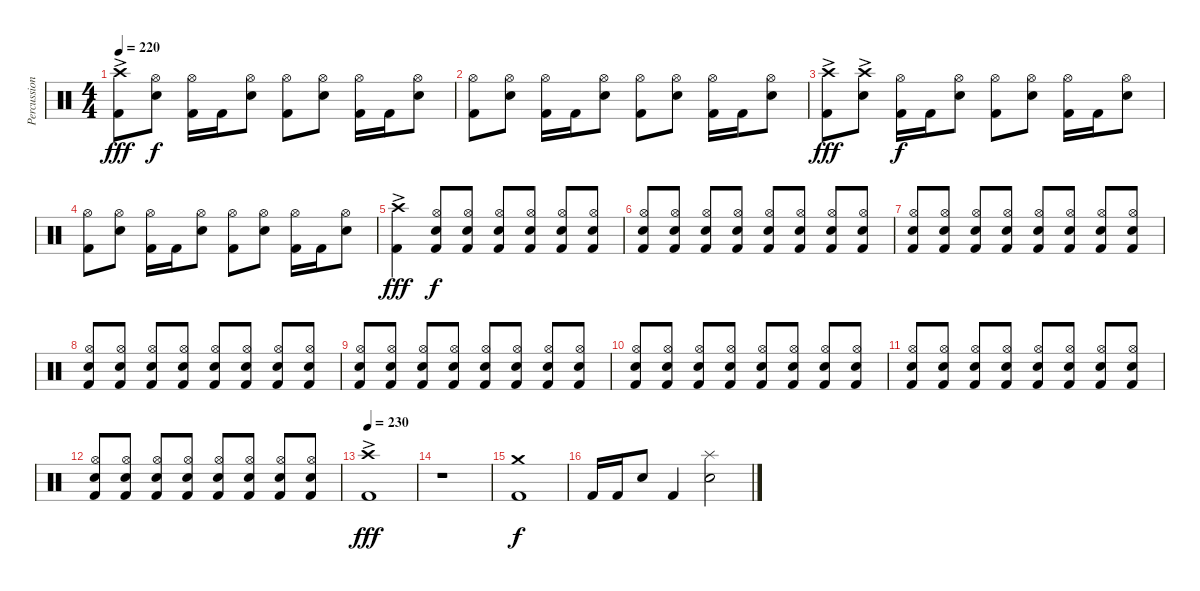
\track ("Percussion" "Percussion") {instrument percussion}
\staff {score}
\articulation defaults
\ts (4 4)
\tempo 220
\clef neutral
\ks c
("Crash high (hit)"{ac} "Kick (hit) 2").8{dy fff} ("Hi-Hat (open)" "Electric Snare (hit)").8{dy f} ("Hi-Hat (open)" "Kick (hit) 2").16 "Kick (hit) 2".16 ("Hi-Hat (open)" "Electric Snare (hit)").8 ("Hi-Hat (open)" "Kick (hit) 2").8 ("Hi-Hat (open)" "Electric Snare (hit)").8 ("Hi-Hat (open)" "Kick (hit) 2").16 "Kick (hit) 2".16 ("Hi-Hat (open)" "Electric Snare (hit)").8 |
("Hi-Hat (open)" "Kick (hit) 2").8 ("Hi-Hat (open)" "Electric Snare (hit)").8 ("Hi-Hat (open)" "Kick (hit) 2").16 "Kick (hit) 2".16 ("Hi-Hat (open)" "Electric Snare (hit)").8 ("Hi-Hat (open)" "Kick (hit) 2").8 ("Hi-Hat (open)" "Electric Snare (hit)").8 ("Hi-Hat (open)" "Kick (hit) 2").16 "Kick (hit) 2".16 ("Hi-Hat (open)" "Electric Snare (hit)").8 |
("Crash high (hit)"{ac} "Kick (hit) 2").8{dy fff} ("Crash high (hit)"{ac} "Electric Snare (hit)").8 ("Hi-Hat (open)" "Kick (hit) 2").16{dy f} "Kick (hit) 2".16 ("Hi-Hat (open)" "Electric Snare (hit)").8 ("Hi-Hat (open)" "Kick (hit) 2").8 ("Hi-Hat (open)" "Electric Snare (hit)").8 ("Hi-Hat (open)" "Kick (hit) 2").16 "Kick (hit) 2".16 ("Hi-Hat (open)" "Electric Snare (hit)").8 |
("Hi-Hat (open)" "Kick (hit) 2").8 ("Hi-Hat (open)" "Electric Snare (hit)").8 ("Hi-Hat (open)" "Kick (hit) 2").16 "Kick (hit) 2".16 ("Hi-Hat (open)" "Electric Snare (hit)").8 ("Hi-Hat (open)" "Kick (hit) 2").8 ("Hi-Hat (open)" "Electric Snare (hit)").8 ("Hi-Hat (open)" "Kick (hit) 2").16 "Kick (hit) 2".16 ("Hi-Hat (open)" "Electric Snare (hit)").8 |
("Crash high (hit)"{ac} "Kick (hit) 2").4{dy fff} ("Hi-Hat (open)" "Electric Snare (hit)" "Kick (hit) 2").8{dy f} ("Hi-Hat (open)" "Electric Snare (hit)" "Kick (hit) 2").8 ("Hi-Hat (open)" "Electric Snare (hit)" "Kick (hit) 2").8 ("Hi-Hat (open)" "Electric Snare (hit)" "Kick (hit) 2").8 ("Hi-Hat (open)" "Electric Snare (hit)" "Kick (hit) 2").8 ("Hi-Hat (open)" "Electric Snare (hit)" "Kick (hit) 2").8 |
("Hi-Hat (open)" "Electric Snare (hit)" "Kick (hit) 2").8 ("Hi-Hat (open)" "Electric Snare (hit)" "Kick (hit) 2").8 ("Hi-Hat (open)" "Electric Snare (hit)" "Kick (hit) 2").8 ("Hi-Hat (open)" "Electric Snare (hit)" "Kick (hit) 2").8 ("Hi-Hat (open)" "Electric Snare (hit)" "Kick (hit) 2").8 ("Hi-Hat (open)" "Electric Snare (hit)" "Kick (hit) 2").8 ("Hi-Hat (open)" "Electric Snare (hit)" "Kick (hit) 2").8 ("Hi-Hat (open)" "Electric Snare (hit)" "Kick (hit) 2").8 |
("Hi-Hat (open)" "Electric Snare (hit)" "Kick (hit) 2").8 ("Hi-Hat (open)" "Electric Snare (hit)" "Kick (hit) 2").8 ("Hi-Hat (open)" "Electric Snare (hit)" "Kick (hit) 2").8 ("Hi-Hat (open)" "Electric Snare (hit)" "Kick (hit) 2").8 ("Hi-Hat (open)" "Electric Snare (hit)" "Kick (hit) 2").8 ("Hi-Hat (open)" "Electric Snare (hit)" "Kick (hit) 2").8 ("Hi-Hat (open)" "Electric Snare (hit)" "Kick (hit) 2").8 ("Hi-Hat (open)" "Electric Snare (hit)" "Kick (hit) 2").8 |
("Hi-Hat (open)" "Electric Snare (hit)" "Kick (hit) 2").8 ("Hi-Hat (open)" "Electric Snare (hit)" "Kick (hit) 2").8 ("Hi-Hat (open)" "Electric Snare (hit)" "Kick (hit) 2").8 ("Hi-Hat (open)" "Electric Snare (hit)" "Kick (hit) 2").8 ("Hi-Hat (open)" "Electric Snare (hit)" "Kick (hit) 2").8 ("Hi-Hat (open)" "Electric Snare (hit)" "Kick (hit) 2").8 ("Hi-Hat (open)" "Electric Snare (hit)" "Kick (hit) 2").8 ("Hi-Hat (open)" "Electric Snare (hit)" "Kick (hit) 2").8 |
("Hi-Hat (open)" "Electric Snare (hit)" "Kick (hit) 2").8 ("Hi-Hat (open)" "Electric Snare (hit)" "Kick (hit) 2").8 ("Hi-Hat (open)" "Electric Snare (hit)" "Kick (hit) 2").8 ("Hi-Hat (open)" "Electric Snare (hit)" "Kick (hit) 2").8 ("Hi-Hat (open)" "Electric Snare (hit)" "Kick (hit) 2").8 ("Hi-Hat (open)" "Electric Snare (hit)" "Kick (hit) 2").8 ("Hi-Hat (open)" "Electric Snare (hit)" "Kick (hit) 2").8 ("Hi-Hat (open)" "Electric Snare (hit)" "Kick (hit) 2").8 |
("Hi-Hat (open)" "Electric Snare (hit)" "Kick (hit) 2").8 ("Hi-Hat (open)" "Electric Snare (hit)" "Kick (hit) 2").8 ("Hi-Hat (open)" "Electric Snare (hit)" "Kick (hit) 2").8 ("Hi-Hat (open)" "Electric Snare (hit)" "Kick (hit) 2").8 ("Hi-Hat (open)" "Electric Snare (hit)" "Kick (hit) 2").8 ("Hi-Hat (open)" "Electric Snare (hit)" "Kick (hit) 2").8 ("Hi-Hat (open)" "Electric Snare (hit)" "Kick (hit) 2").8 ("Hi-Hat (open)" "Electric Snare (hit)" "Kick (hit) 2").8 |
("Hi-Hat (open)" "Electric Snare (hit)" "Kick (hit) 2").8 ("Hi-Hat (open)" "Electric Snare (hit)" "Kick (hit) 2").8 ("Hi-Hat (open)" "Electric Snare (hit)" "Kick (hit) 2").8 ("Hi-Hat (open)" "Electric Snare (hit)" "Kick (hit) 2").8 ("Hi-Hat (open)" "Electric Snare (hit)" "Kick (hit) 2").8 ("Hi-Hat (open)" "Electric Snare (hit)" "Kick (hit) 2").8 ("Hi-Hat (open)" "Electric Snare (hit)" "Kick (hit) 2").8 ("Hi-Hat (open)" "Electric Snare (hit)" "Kick (hit) 2").8 |
("Hi-Hat (open)" "Electric Snare (hit)" "Kick (hit) 2").8 ("Hi-Hat (open)" "Electric Snare (hit)" "Kick (hit) 2").8 ("Hi-Hat (open)" "Electric Snare (hit)" "Kick (hit) 2").8 ("Hi-Hat (open)" "Electric Snare (hit)" "Kick (hit) 2").8 ("Hi-Hat (open)" "Electric Snare (hit)" "Kick (hit) 2").8 ("Hi-Hat (open)" "Electric Snare (hit)" "Kick (hit) 2").8 ("Hi-Hat (open)" "Electric Snare (hit)" "Kick (hit) 2").8 ("Hi-Hat (open)" "Electric Snare (hit)" "Kick (hit) 2").8 |
\tempo 230
("Crash high (hit)"{ac} "Kick (hit) 2").1{dy fff} |
r.1 |
("Crash medium (hit)" "Kick (hit) 2").1{dy f} |
"Kick (hit) 2".16 "Kick (hit) 2".16 "Electric Snare (hit)".8 "Kick (hit) 2".4 ("Splash (hit)" "Electric Snare (hit)").2
